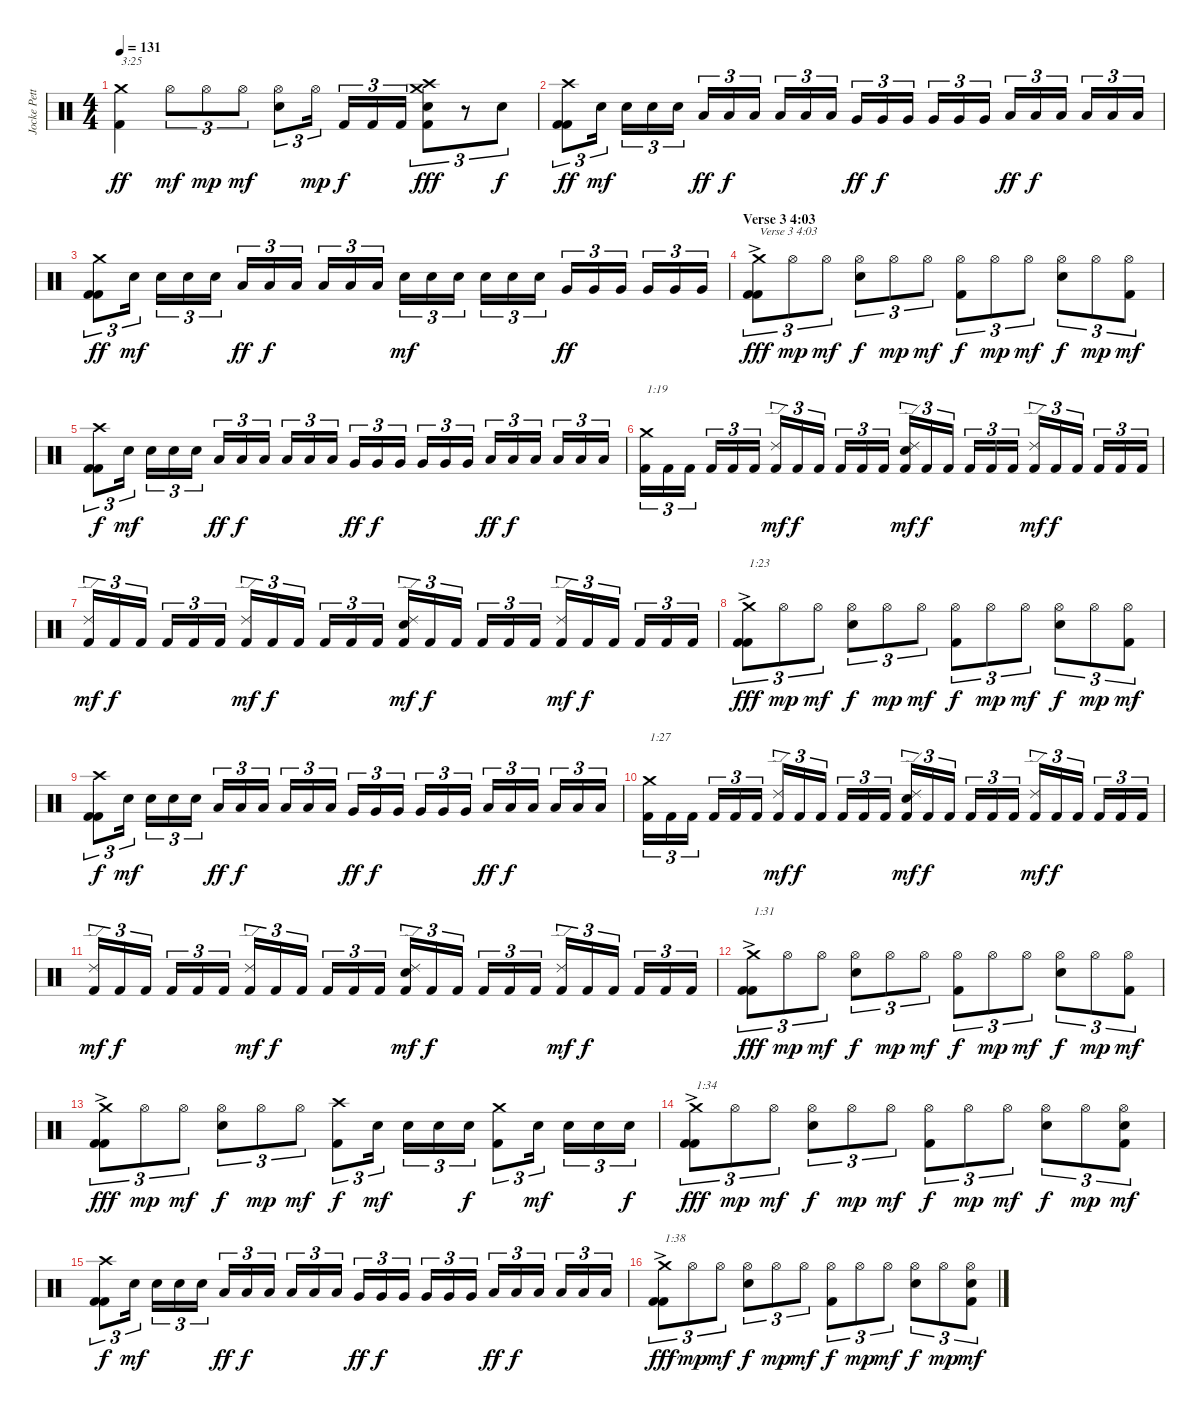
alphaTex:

\track ("Jocke Pettersson" "Jocke Pett") {instrument percussion}
\staff {score}
\articulation defaults
\ts (4 4)
\tempo 131
\clef neutral
\ks c
("Kick (hit) 2" "Crash medium (hit)").4{txt "3:25" dy ff} "Hi-Hat (open)".8{tu (3 2) dy mf} "Hi-Hat (open)".8{tu (3 2) dy mp} "Hi-Hat (open)".8{tu (3 2) dy mf} ("Electric Snare (hit)" "Hi-Hat (open)").8{tu (3 2)} "Hi-Hat (open)".16{tu (3 2) dy mp} "Kick (hit) 2".16{tu (3 2) dy f} "Kick (hit) 2".16{tu (3 2)} "Kick (hit) 2".16{tu (3 2)} ("Kick (hit) 2" "Electric Snare (hit)" "Crash medium (hit)" "Crash high (hit)").8{tu (3 2) dy fff} r.8{tu (3 2)} "Electric Snare (hit)".8{tu (3 2) dy f} |
("Kick (hit) 2" "Kick (hit) 2" "Crash high (hit)").8{tu (3 2) dy ff} "Electric Snare (hit)".16{tu (3 2) dy mf} "Electric Snare (hit)".16{tu (3 2)} "Electric Snare (hit)".16{tu (3 2)} "Electric Snare (hit)".16{tu (3 2)} "Low Tom (hit)".16{tu (3 2) dy ff} "Low Tom (hit)".16{tu (3 2) dy f} "Low Tom (hit)".16{tu (3 2)} "Low Tom (hit)".16{tu (3 2)} "Low Tom (hit)".16{tu (3 2)} "Low Tom (hit)".16{tu (3 2)} "Very Low Tom (hit)".16{tu (3 2) dy ff} "Very Low Tom (hit)".16{tu (3 2) dy f} "Very Low Tom (hit)".16{tu (3 2)} "Very Low Tom (hit)".16{tu (3 2)} "Very Low Tom (hit)".16{tu (3 2)} "Very Low Tom (hit)".16{tu (3 2)} "Low Floor Tom (hit)".16{tu (3 2) dy ff} "Low Floor Tom (hit)".16{tu (3 2) dy f} "Low Floor Tom (hit)".16{tu (3 2)} "Low Floor Tom (hit)".16{tu (3 2)} "Low Floor Tom (hit)".16{tu (3 2)} "Low Floor Tom (hit)".16{tu (3 2)} |
("Kick (hit) 2" "Kick (hit) 2" "Crash medium (hit)").8{tu (3 2) dy ff} "Electric Snare (hit)".16{tu (3 2) dy mf} "Electric Snare (hit)".16{tu (3 2)} "Electric Snare (hit)".16{tu (3 2)} "Electric Snare (hit)".16{tu (3 2)} "Low Tom (hit)".16{tu (3 2) dy ff} "Low Tom (hit)".16{tu (3 2) dy f} "Low Tom (hit)".16{tu (3 2)} "Low Tom (hit)".16{tu (3 2)} "Low Tom (hit)".16{tu (3 2)} "Low Tom (hit)".16{tu (3 2)} "Electric Snare (hit)".16{tu (3 2) dy mf} "Electric Snare (hit)".16{tu (3 2)} "Electric Snare (hit)".16{tu (3 2)} "Electric Snare (hit)".16{tu (3 2)} "Electric Snare (hit)".16{tu (3 2)} "Electric Snare (hit)".16{tu (3 2)} "Very Low Tom (hit)".16{tu (3 2) dy ff} "Very Low Tom (hit)".16{tu (3 2)} "Very Low Tom (hit)".16{tu (3 2)} "Very Low Tom (hit)".16{tu (3 2)} "Very Low Tom (hit)".16{tu (3 2)} "Very Low Tom (hit)".16{tu (3 2)} |
\section ("" "Verse 3 4:03")
("Kick (hit) 2" "Kick (hit) 2" "Crash medium (hit)"{ac}).8{tu (3 2) txt "Verse 3 4:03" dy fff} "Hi-Hat (open)".8{tu (3 2) dy mp} "Hi-Hat (open)".8{tu (3 2) dy mf} ("Electric Snare (hit)" "Hi-Hat (open)").8{tu (3 2) dy f} "Hi-Hat (open)".8{tu (3 2) dy mp} "Hi-Hat (open)".8{tu (3 2) dy mf} ("Kick (hit) 2" "Hi-Hat (open)").8{tu (3 2) dy f} "Hi-Hat (open)".8{tu (3 2) dy mp} "Hi-Hat (open)".8{tu (3 2) dy mf} ("Electric Snare (hit)" "Hi-Hat (open)").8{tu (3 2) dy f} "Hi-Hat (open)".8{tu (3 2) dy mp} ("Kick (hit) 2" "Hi-Hat (open)").8{tu (3 2) dy mf} |
("Kick (hit) 2" "Kick (hit) 2" "Crash high (hit)").8{tu (3 2) dy f} "Electric Snare (hit)".16{tu (3 2) dy mf} "Electric Snare (hit)".16{tu (3 2)} "Electric Snare (hit)".16{tu (3 2)} "Electric Snare (hit)".16{tu (3 2)} "Low Tom (hit)".16{tu (3 2) dy ff} "Low Tom (hit)".16{tu (3 2) dy f} "Low Tom (hit)".16{tu (3 2)} "Low Tom (hit)".16{tu (3 2)} "Low Tom (hit)".16{tu (3 2)} "Low Tom (hit)".16{tu (3 2)} "Very Low Tom (hit)".16{tu (3 2) dy ff} "Very Low Tom (hit)".16{tu (3 2) dy f} "Very Low Tom (hit)".16{tu (3 2)} "Very Low Tom (hit)".16{tu (3 2)} "Very Low Tom (hit)".16{tu (3 2)} "Very Low Tom (hit)".16{tu (3 2)} "Low Floor Tom (hit)".16{tu (3 2) dy ff} "Low Floor Tom (hit)".16{tu (3 2) dy f} "Low Floor Tom (hit)".16{tu (3 2)} "Low Floor Tom (hit)".16{tu (3 2)} "Low Floor Tom (hit)".16{tu (3 2)} "Low Floor Tom (hit)".16{tu (3 2)} |
("Kick (hit) 2" "Crash medium (hit)").16{tu (3 2) txt "1:19"} "Kick (hit) 2".16{tu (3 2)} "Kick (hit) 2".16{tu (3 2)} "Kick (hit) 2".16{tu (3 2)} "Kick (hit) 2".16{tu (3 2)} "Kick (hit) 2".16{tu (3 2)} ("Kick (hit) 2" "Ride (edge) 2").16{tu (3 2) dy mf} "Kick (hit) 2".16{tu (3 2) dy f} "Kick (hit) 2".16{tu (3 2)} "Kick (hit) 2".16{tu (3 2)} "Kick (hit) 2".16{tu (3 2)} "Kick (hit) 2".16{tu (3 2)} ("Kick (hit) 2" "Electric Snare (hit)" "Ride (edge) 2").16{tu (3 2) dy mf} "Kick (hit) 2".16{tu (3 2) dy f} "Kick (hit) 2".16{tu (3 2)} "Kick (hit) 2".16{tu (3 2)} "Kick (hit) 2".16{tu (3 2)} "Kick (hit) 2".16{tu (3 2)} ("Kick (hit) 2" "Ride (edge) 2").16{tu (3 2) dy mf} "Kick (hit) 2".16{tu (3 2) dy f} "Kick (hit) 2".16{tu (3 2)} "Kick (hit) 2".16{tu (3 2)} "Kick (hit) 2".16{tu (3 2)} "Kick (hit) 2".16{tu (3 2)} |
("Kick (hit) 2" "Ride (edge) 2").16{tu (3 2) dy mf} "Kick (hit) 2".16{tu (3 2) dy f} "Kick (hit) 2".16{tu (3 2)} "Kick (hit) 2".16{tu (3 2)} "Kick (hit) 2".16{tu (3 2)} "Kick (hit) 2".16{tu (3 2)} ("Kick (hit) 2" "Ride (edge) 2").16{tu (3 2) dy mf} "Kick (hit) 2".16{tu (3 2) dy f} "Kick (hit) 2".16{tu (3 2)} "Kick (hit) 2".16{tu (3 2)} "Kick (hit) 2".16{tu (3 2)} "Kick (hit) 2".16{tu (3 2)} ("Kick (hit) 2" "Electric Snare (hit)" "Ride (edge) 2").16{tu (3 2) dy mf} "Kick (hit) 2".16{tu (3 2) dy f} "Kick (hit) 2".16{tu (3 2)} "Kick (hit) 2".16{tu (3 2)} "Kick (hit) 2".16{tu (3 2)} "Kick (hit) 2".16{tu (3 2)} ("Kick (hit) 2" "Ride (edge) 2").16{tu (3 2) dy mf} "Kick (hit) 2".16{tu (3 2) dy f} "Kick (hit) 2".16{tu (3 2)} "Kick (hit) 2".16{tu (3 2)} "Kick (hit) 2".16{tu (3 2)} "Kick (hit) 2".16{tu (3 2)} |
("Kick (hit) 2" "Kick (hit) 2" "Crash medium (hit)"{ac}).8{tu (3 2) txt "1:23" dy fff} "Hi-Hat (open)".8{tu (3 2) dy mp} "Hi-Hat (open)".8{tu (3 2) dy mf} ("Electric Snare (hit)" "Hi-Hat (open)").8{tu (3 2) dy f} "Hi-Hat (open)".8{tu (3 2) dy mp} "Hi-Hat (open)".8{tu (3 2) dy mf} ("Kick (hit) 2" "Hi-Hat (open)").8{tu (3 2) dy f} "Hi-Hat (open)".8{tu (3 2) dy mp} "Hi-Hat (open)".8{tu (3 2) dy mf} ("Electric Snare (hit)" "Hi-Hat (open)").8{tu (3 2) dy f} "Hi-Hat (open)".8{tu (3 2) dy mp} ("Kick (hit) 2" "Hi-Hat (open)").8{tu (3 2) dy mf} |
("Kick (hit) 2" "Kick (hit) 2" "Crash high (hit)").8{tu (3 2) dy f} "Electric Snare (hit)".16{tu (3 2) dy mf} "Electric Snare (hit)".16{tu (3 2)} "Electric Snare (hit)".16{tu (3 2)} "Electric Snare (hit)".16{tu (3 2)} "Low Tom (hit)".16{tu (3 2) dy ff} "Low Tom (hit)".16{tu (3 2) dy f} "Low Tom (hit)".16{tu (3 2)} "Low Tom (hit)".16{tu (3 2)} "Low Tom (hit)".16{tu (3 2)} "Low Tom (hit)".16{tu (3 2)} "Very Low Tom (hit)".16{tu (3 2) dy ff} "Very Low Tom (hit)".16{tu (3 2) dy f} "Very Low Tom (hit)".16{tu (3 2)} "Very Low Tom (hit)".16{tu (3 2)} "Very Low Tom (hit)".16{tu (3 2)} "Very Low Tom (hit)".16{tu (3 2)} "Low Floor Tom (hit)".16{tu (3 2) dy ff} "Low Floor Tom (hit)".16{tu (3 2) dy f} "Low Floor Tom (hit)".16{tu (3 2)} "Low Floor Tom (hit)".16{tu (3 2)} "Low Floor Tom (hit)".16{tu (3 2)} "Low Floor Tom (hit)".16{tu (3 2)} |
("Kick (hit) 2" "Crash medium (hit)").16{tu (3 2) txt "1:27"} "Kick (hit) 2".16{tu (3 2)} "Kick (hit) 2".16{tu (3 2)} "Kick (hit) 2".16{tu (3 2)} "Kick (hit) 2".16{tu (3 2)} "Kick (hit) 2".16{tu (3 2)} ("Kick (hit) 2" "Ride (edge) 2").16{tu (3 2) dy mf} "Kick (hit) 2".16{tu (3 2) dy f} "Kick (hit) 2".16{tu (3 2)} "Kick (hit) 2".16{tu (3 2)} "Kick (hit) 2".16{tu (3 2)} "Kick (hit) 2".16{tu (3 2)} ("Kick (hit) 2" "Electric Snare (hit)" "Ride (edge) 2").16{tu (3 2) dy mf} "Kick (hit) 2".16{tu (3 2) dy f} "Kick (hit) 2".16{tu (3 2)} "Kick (hit) 2".16{tu (3 2)} "Kick (hit) 2".16{tu (3 2)} "Kick (hit) 2".16{tu (3 2)} ("Kick (hit) 2" "Ride (edge) 2").16{tu (3 2) dy mf} "Kick (hit) 2".16{tu (3 2) dy f} "Kick (hit) 2".16{tu (3 2)} "Kick (hit) 2".16{tu (3 2)} "Kick (hit) 2".16{tu (3 2)} "Kick (hit) 2".16{tu (3 2)} |
("Kick (hit) 2" "Ride (edge) 2").16{tu (3 2) dy mf} "Kick (hit) 2".16{tu (3 2) dy f} "Kick (hit) 2".16{tu (3 2)} "Kick (hit) 2".16{tu (3 2)} "Kick (hit) 2".16{tu (3 2)} "Kick (hit) 2".16{tu (3 2)} ("Kick (hit) 2" "Ride (edge) 2").16{tu (3 2) dy mf} "Kick (hit) 2".16{tu (3 2) dy f} "Kick (hit) 2".16{tu (3 2)} "Kick (hit) 2".16{tu (3 2)} "Kick (hit) 2".16{tu (3 2)} "Kick (hit) 2".16{tu (3 2)} ("Kick (hit) 2" "Electric Snare (hit)" "Ride (edge) 2").16{tu (3 2) dy mf} "Kick (hit) 2".16{tu (3 2) dy f} "Kick (hit) 2".16{tu (3 2)} "Kick (hit) 2".16{tu (3 2)} "Kick (hit) 2".16{tu (3 2)} "Kick (hit) 2".16{tu (3 2)} ("Kick (hit) 2" "Ride (edge) 2").16{tu (3 2) dy mf} "Kick (hit) 2".16{tu (3 2) dy f} "Kick (hit) 2".16{tu (3 2)} "Kick (hit) 2".16{tu (3 2)} "Kick (hit) 2".16{tu (3 2)} "Kick (hit) 2".16{tu (3 2)} |
("Kick (hit) 2" "Kick (hit) 2" "Crash medium (hit)"{ac}).8{tu (3 2) txt "1:31" dy fff} "Hi-Hat (open)".8{tu (3 2) dy mp} "Hi-Hat (open)".8{tu (3 2) dy mf} ("Electric Snare (hit)" "Hi-Hat (open)").8{tu (3 2) dy f} "Hi-Hat (open)".8{tu (3 2) dy mp} "Hi-Hat (open)".8{tu (3 2) dy mf} ("Kick (hit) 2" "Hi-Hat (open)").8{tu (3 2) dy f} "Hi-Hat (open)".8{tu (3 2) dy mp} "Hi-Hat (open)".8{tu (3 2) dy mf} ("Electric Snare (hit)" "Hi-Hat (open)").8{tu (3 2) dy f} "Hi-Hat (open)".8{tu (3 2) dy mp} ("Kick (hit) 2" "Hi-Hat (open)").8{tu (3 2) dy mf} |
("Kick (hit) 2" "Kick (hit) 2" "Crash medium (hit)"{ac}).8{tu (3 2) dy fff} "Hi-Hat (open)".8{tu (3 2) dy mp} "Hi-Hat (open)".8{tu (3 2) dy mf} ("Electric Snare (hit)" "Hi-Hat (open)").8{tu (3 2) dy f} "Hi-Hat (open)".8{tu (3 2) dy mp} "Hi-Hat (open)".8{tu (3 2) dy mf} ("Kick (hit) 2" "Crash high (hit)").8{tu (3 2) dy f} "Electric Snare (hit)".16{tu (3 2) dy mf} "Electric Snare (hit)".16{tu (3 2)} "Electric Snare (hit)".16{tu (3 2)} "Electric Snare (hit)".16{tu (3 2) dy f} ("Kick (hit) 2" "Crash medium (hit)").8{tu (3 2)} "Electric Snare (hit)".16{tu (3 2) dy mf} "Electric Snare (hit)".16{tu (3 2)} "Electric Snare (hit)".16{tu (3 2)} "Electric Snare (hit)".16{tu (3 2) dy f} |
("Kick (hit) 2" "Kick (hit) 2" "Crash medium (hit)"{ac}).8{tu (3 2) txt "1:34" dy fff} "Hi-Hat (open)".8{tu (3 2) dy mp} "Hi-Hat (open)".8{tu (3 2) dy mf} ("Electric Snare (hit)" "Hi-Hat (open)").8{tu (3 2) dy f} "Hi-Hat (open)".8{tu (3 2) dy mp} "Hi-Hat (open)".8{tu (3 2) dy mf} ("Kick (hit) 2" "Hi-Hat (open)").8{tu (3 2) dy f} "Hi-Hat (open)".8{tu (3 2) dy mp} "Hi-Hat (open)".8{tu (3 2) dy mf} ("Electric Snare (hit)" "Hi-Hat (open)").8{tu (3 2) dy f} "Hi-Hat (open)".8{tu (3 2) dy mp} ("Kick (hit) 2" "Electric Snare (hit)" "Hi-Hat (open)").8{tu (3 2) dy mf} |
("Kick (hit) 2" "Kick (hit) 2" "Crash high (hit)").8{tu (3 2) dy f} "Electric Snare (hit)".16{tu (3 2) dy mf} "Electric Snare (hit)".16{tu (3 2)} "Electric Snare (hit)".16{tu (3 2)} "Electric Snare (hit)".16{tu (3 2)} "Low Tom (hit)".16{tu (3 2) dy ff} "Low Tom (hit)".16{tu (3 2) dy f} "Low Tom (hit)".16{tu (3 2)} "Low Tom (hit)".16{tu (3 2)} "Low Tom (hit)".16{tu (3 2)} "Low Tom (hit)".16{tu (3 2)} "Very Low Tom (hit)".16{tu (3 2) dy ff} "Very Low Tom (hit)".16{tu (3 2) dy f} "Very Low Tom (hit)".16{tu (3 2)} "Very Low Tom (hit)".16{tu (3 2)} "Very Low Tom (hit)".16{tu (3 2)} "Very Low Tom (hit)".16{tu (3 2)} "Low Floor Tom (hit)".16{tu (3 2) dy ff} "Low Floor Tom (hit)".16{tu (3 2) dy f} "Low Floor Tom (hit)".16{tu (3 2)} "Low Floor Tom (hit)".16{tu (3 2)} "Low Floor Tom (hit)".16{tu (3 2)} "Low Floor Tom (hit)".16{tu (3 2)} |
("Kick (hit) 2" "Kick (hit) 2" "Crash medium (hit)"{ac}).8{tu (3 2) txt "1:38" dy fff} "Hi-Hat (open)".8{tu (3 2) dy mp} "Hi-Hat (open)".8{tu (3 2) dy mf} ("Electric Snare (hit)" "Hi-Hat (open)").8{tu (3 2) dy f} "Hi-Hat (open)".8{tu (3 2) dy mp} "Hi-Hat (open)".8{tu (3 2) dy mf} ("Kick (hit) 2" "Hi-Hat (open)").8{tu (3 2) dy f} "Hi-Hat (open)".8{tu (3 2) dy mp} "Hi-Hat (open)".8{tu (3 2) dy mf} ("Electric Snare (hit)" "Hi-Hat (open)").8{tu (3 2) dy f} "Hi-Hat (open)".8{tu (3 2) dy mp} ("Kick (hit) 2" "Electric Snare (hit)" "Hi-Hat (open)").8{tu (3 2) dy mf}
